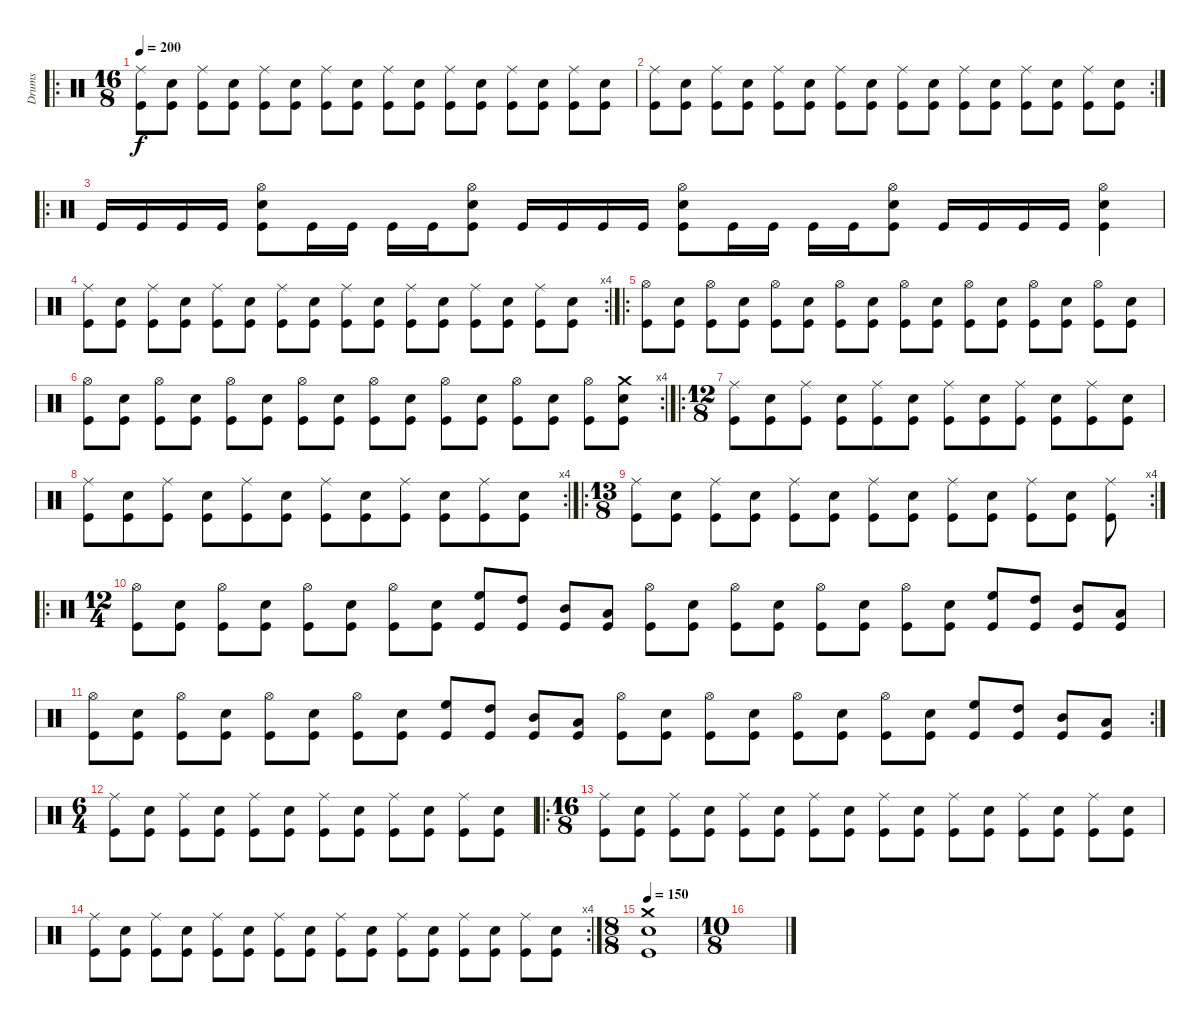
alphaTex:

\track ("Drums" "Drums") {instrument percussion}
\staff {score}
\articulation defaults
\ro
\ts (16 8)
\tempo 200
\clef neutral
\ks c
("Ride (middle)" "Kick (hit)").8{dy f} ("Snare (hit) 2" "Kick (hit)").8 ("Ride (middle)" "Kick (hit)").8 ("Snare (hit) 2" "Kick (hit)").8 ("Ride (middle)" "Kick (hit)").8 ("Snare (hit) 2" "Kick (hit)").8 ("Ride (middle)" "Kick (hit)").8 ("Snare (hit) 2" "Kick (hit)").8 ("Ride (middle)" "Kick (hit)").8 ("Snare (hit) 2" "Kick (hit)").8 ("Ride (middle)" "Kick (hit)").8 ("Snare (hit) 2" "Kick (hit)").8 ("Ride (middle)" "Kick (hit)").8 ("Snare (hit) 2" "Kick (hit)").8 ("Ride (middle)" "Kick (hit)").8 ("Snare (hit) 2" "Kick (hit)").8 |
\rc 2
("Ride (middle)" "Kick (hit)").8 ("Snare (hit) 2" "Kick (hit)").8 ("Ride (middle)" "Kick (hit)").8 ("Snare (hit) 2" "Kick (hit)").8 ("Ride (middle)" "Kick (hit)").8 ("Snare (hit) 2" "Kick (hit)").8 ("Ride (middle)" "Kick (hit)").8 ("Snare (hit) 2" "Kick (hit)").8 ("Ride (middle)" "Kick (hit)").8 ("Snare (hit) 2" "Kick (hit)").8 ("Ride (middle)" "Kick (hit)").8 ("Snare (hit) 2" "Kick (hit)").8 ("Ride (middle)" "Kick (hit)").8 ("Snare (hit) 2" "Kick (hit)").8 ("Ride (middle)" "Kick (hit)").8 ("Snare (hit) 2" "Kick (hit)").8 |
\ro "Kick (hit)".16 "Kick (hit)".16 "Kick (hit)".16 "Kick (hit)".16
("Hi-Hat (open)" "Snare (hit) 2" "Kick (hit)").8 "Kick (hit)".16 "Kick (hit)".16 "Kick (hit)".16 "Kick (hit)".16 ("Hi-Hat (open)" "Snare (hit) 2" "Kick (hit)").8 "Kick (hit)".16 "Kick (hit)".16 "Kick (hit)".16 "Kick (hit)".16 ("Hi-Hat (open)" "Snare (hit) 2" "Kick (hit)").8 "Kick (hit)".16 "Kick (hit)".16 "Kick (hit)".16 "Kick (hit)".16 ("Hi-Hat (open)" "Snare (hit) 2" "Kick (hit)").8 "Kick (hit)".16 "Kick (hit)".16 "Kick (hit)".16 "Kick (hit)".16 ("Hi-Hat (open)" "Snare (hit) 2" "Kick (hit)").4 |
\rc 4
("Ride (middle)" "Kick (hit)").8 ("Snare (hit) 2" "Kick (hit)").8 ("Ride (middle)" "Kick (hit)").8 ("Snare (hit) 2" "Kick (hit)").8 ("Ride (middle)" "Kick (hit)").8 ("Snare (hit) 2" "Kick (hit)").8 ("Ride (middle)" "Kick (hit)").8 ("Snare (hit) 2" "Kick (hit)").8 ("Ride (middle)" "Kick (hit)").8 ("Snare (hit) 2" "Kick (hit)").8 ("Ride (middle)" "Kick (hit)").8 ("Snare (hit) 2" "Kick (hit)").8 ("Ride (middle)" "Kick (hit)").8 ("Snare (hit) 2" "Kick (hit)").8 ("Ride (middle)" "Kick (hit)").8 ("Snare (hit) 2" "Kick (hit)").8 |
\ro
("Hi-Hat (open)" "Kick (hit)").8 ("Snare (hit) 2" "Kick (hit)").8 ("Hi-Hat (open)" "Kick (hit)").8 ("Snare (hit) 2" "Kick (hit)").8 ("Hi-Hat (open)" "Kick (hit)").8 ("Snare (hit) 2" "Kick (hit)").8 ("Hi-Hat (open)" "Kick (hit)").8 ("Snare (hit) 2" "Kick (hit)").8 ("Hi-Hat (open)" "Kick (hit)").8 ("Snare (hit) 2" "Kick (hit)").8 ("Hi-Hat (open)" "Kick (hit)").8 ("Snare (hit) 2" "Kick (hit)").8 ("Hi-Hat (open)" "Kick (hit)").8 ("Snare (hit) 2" "Kick (hit)").8 ("Hi-Hat (open)" "Kick (hit)").8 ("Snare (hit) 2" "Kick (hit)").8 |
\rc 4
("Hi-Hat (open)" "Kick (hit)").8 ("Snare (hit) 2" "Kick (hit)").8 ("Hi-Hat (open)" "Kick (hit)").8 ("Snare (hit) 2" "Kick (hit)").8 ("Hi-Hat (open)" "Kick (hit)").8 ("Snare (hit) 2" "Kick (hit)").8 ("Hi-Hat (open)" "Kick (hit)").8 ("Snare (hit) 2" "Kick (hit)").8 ("Hi-Hat (open)" "Kick (hit)").8 ("Snare (hit) 2" "Kick (hit)").8 ("Hi-Hat (open)" "Kick (hit)").8 ("Snare (hit) 2" "Kick (hit)").8 ("Hi-Hat (open)" "Kick (hit)").8 ("Snare (hit) 2" "Kick (hit)").8 ("Hi-Hat (open)" "Kick (hit)").8 ("Crash medium (hit)" "Snare (hit) 2" "Kick (hit)").8 |
\ro
\ts (12 8)
("Ride (middle)" "Kick (hit)").8 ("Snare (hit) 2" "Kick (hit)").8 ("Ride (middle)" "Kick (hit)").8 ("Snare (hit) 2" "Kick (hit)").8 ("Ride (middle)" "Kick (hit)").8 ("Snare (hit) 2" "Kick (hit)").8 ("Ride (middle)" "Kick (hit)").8 ("Snare (hit) 2" "Kick (hit)").8 ("Ride (middle)" "Kick (hit)").8 ("Snare (hit) 2" "Kick (hit)").8 ("Ride (middle)" "Kick (hit)").8 ("Snare (hit) 2" "Kick (hit)").8 |
\rc 4
("Ride (middle)" "Kick (hit)").8 ("Snare (hit) 2" "Kick (hit)").8 ("Ride (middle)" "Kick (hit)").8 ("Snare (hit) 2" "Kick (hit)").8 ("Ride (middle)" "Kick (hit)").8 ("Snare (hit) 2" "Kick (hit)").8 ("Ride (middle)" "Kick (hit)").8 ("Snare (hit) 2" "Kick (hit)").8 ("Ride (middle)" "Kick (hit)").8 ("Snare (hit) 2" "Kick (hit)").8 ("Ride (middle)" "Kick (hit)").8 ("Snare (hit) 2" "Kick (hit)").8 |
\ro
\rc 4
\ts (13 8)
("Ride (middle)" "Kick (hit)").8 ("Snare (hit) 2" "Kick (hit)").8 ("Ride (middle)" "Kick (hit)").8 ("Snare (hit) 2" "Kick (hit)").8 ("Ride (middle)" "Kick (hit)").8 ("Snare (hit) 2" "Kick (hit)").8 ("Ride (middle)" "Kick (hit)").8 ("Snare (hit) 2" "Kick (hit)").8 ("Ride (middle)" "Kick (hit)").8 ("Snare (hit) 2" "Kick (hit)").8 ("Ride (middle)" "Kick (hit)").8 ("Snare (hit) 2" "Kick (hit)").8 ("Ride (middle)" "Kick (hit)").8 |
\ro
\ts (12 4)
("Hi-Hat (open)" "Kick (hit)").8 ("Snare (hit) 2" "Kick (hit)").8 ("Hi-Hat (open)" "Kick (hit)").8 ("Snare (hit) 2" "Kick (hit)").8 ("Hi-Hat (open)" "Kick (hit)").8 ("Snare (hit) 2" "Kick (hit)").8 ("Hi-Hat (open)" "Kick (hit)").8 ("Snare (hit) 2" "Kick (hit)").8 ("High Floor Tom (hit)" "Kick (hit)").8 ("High Tom (hit)" "Kick (hit)").8 ("Mid Tom (hit)" "Kick (hit)").8 ("Low Tom (hit)" "Kick (hit)").8 ("Hi-Hat (open)" "Kick (hit)").8 ("Snare (hit) 2" "Kick (hit)").8 ("Hi-Hat (open)" "Kick (hit)").8 ("Snare (hit) 2" "Kick (hit)").8 ("Hi-Hat (open)" "Kick (hit)").8 ("Snare (hit) 2" "Kick (hit)").8 ("Hi-Hat (open)" "Kick (hit)").8 ("Snare (hit) 2" "Kick (hit)").8 ("High Floor Tom (hit)" "Kick (hit)").8 ("High Tom (hit)" "Kick (hit)").8 ("Mid Tom (hit)" "Kick (hit)").8 ("Low Tom (hit)" "Kick (hit)").8 |
\rc 2
("Hi-Hat (open)" "Kick (hit)").8 ("Snare (hit) 2" "Kick (hit)").8 ("Hi-Hat (open)" "Kick (hit)").8 ("Snare (hit) 2" "Kick (hit)").8 ("Hi-Hat (open)" "Kick (hit)").8 ("Snare (hit) 2" "Kick (hit)").8 ("Hi-Hat (open)" "Kick (hit)").8 ("Snare (hit) 2" "Kick (hit)").8 ("High Floor Tom (hit)" "Kick (hit)").8 ("High Tom (hit)" "Kick (hit)").8 ("Mid Tom (hit)" "Kick (hit)").8 ("Low Tom (hit)" "Kick (hit)").8 ("Hi-Hat (open)" "Kick (hit)").8 ("Snare (hit) 2" "Kick (hit)").8 ("Hi-Hat (open)" "Kick (hit)").8 ("Snare (hit) 2" "Kick (hit)").8 ("Hi-Hat (open)" "Kick (hit)").8 ("Snare (hit) 2" "Kick (hit)").8 ("Hi-Hat (open)" "Kick (hit)").8 ("Snare (hit) 2" "Kick (hit)").8 ("High Floor Tom (hit)" "Kick (hit)").8 ("High Tom (hit)" "Kick (hit)").8 ("Mid Tom (hit)" "Kick (hit)").8 ("Low Tom (hit)" "Kick (hit)").8 |
\ts (6 4)
("Ride (middle)" "Kick (hit)").8 ("Snare (hit) 2" "Kick (hit)").8 ("Ride (middle)" "Kick (hit)").8 ("Snare (hit) 2" "Kick (hit)").8 ("Ride (middle)" "Kick (hit)").8 ("Snare (hit) 2" "Kick (hit)").8 ("Ride (middle)" "Kick (hit)").8 ("Snare (hit) 2" "Kick (hit)").8 ("Ride (middle)" "Kick (hit)").8 ("Snare (hit) 2" "Kick (hit)").8 ("Ride (middle)" "Kick (hit)").8 ("Snare (hit) 2" "Kick (hit)").8 |
\ro
\ts (16 8)
("Ride (middle)" "Kick (hit)").8 ("Snare (hit) 2" "Kick (hit)").8 ("Ride (middle)" "Kick (hit)").8 ("Snare (hit) 2" "Kick (hit)").8 ("Ride (middle)" "Kick (hit)").8 ("Snare (hit) 2" "Kick (hit)").8 ("Ride (middle)" "Kick (hit)").8 ("Snare (hit) 2" "Kick (hit)").8 ("Ride (middle)" "Kick (hit)").8 ("Snare (hit) 2" "Kick (hit)").8 ("Ride (middle)" "Kick (hit)").8 ("Snare (hit) 2" "Kick (hit)").8 ("Ride (middle)" "Kick (hit)").8 ("Snare (hit) 2" "Kick (hit)").8 ("Ride (middle)" "Kick (hit)").8 ("Snare (hit) 2" "Kick (hit)").8 |
\rc 4
("Ride (middle)" "Kick (hit)").8 ("Snare (hit) 2" "Kick (hit)").8 ("Ride (middle)" "Kick (hit)").8 ("Snare (hit) 2" "Kick (hit)").8 ("Ride (middle)" "Kick (hit)").8 ("Snare (hit) 2" "Kick (hit)").8 ("Ride (middle)" "Kick (hit)").8 ("Snare (hit) 2" "Kick (hit)").8 ("Ride (middle)" "Kick (hit)").8 ("Snare (hit) 2" "Kick (hit)").8 ("Ride (middle)" "Kick (hit)").8 ("Snare (hit) 2" "Kick (hit)").8 ("Ride (middle)" "Kick (hit)").8 ("Snare (hit) 2" "Kick (hit)").8 ("Ride (middle)" "Kick (hit)").8 ("Snare (hit) 2" "Kick (hit)").8 |
\ts (8 8)
\tempo 150
("Crash medium (hit)" "Snare (hit) 2" "Kick (hit)").1 |
\ts (10 8)
